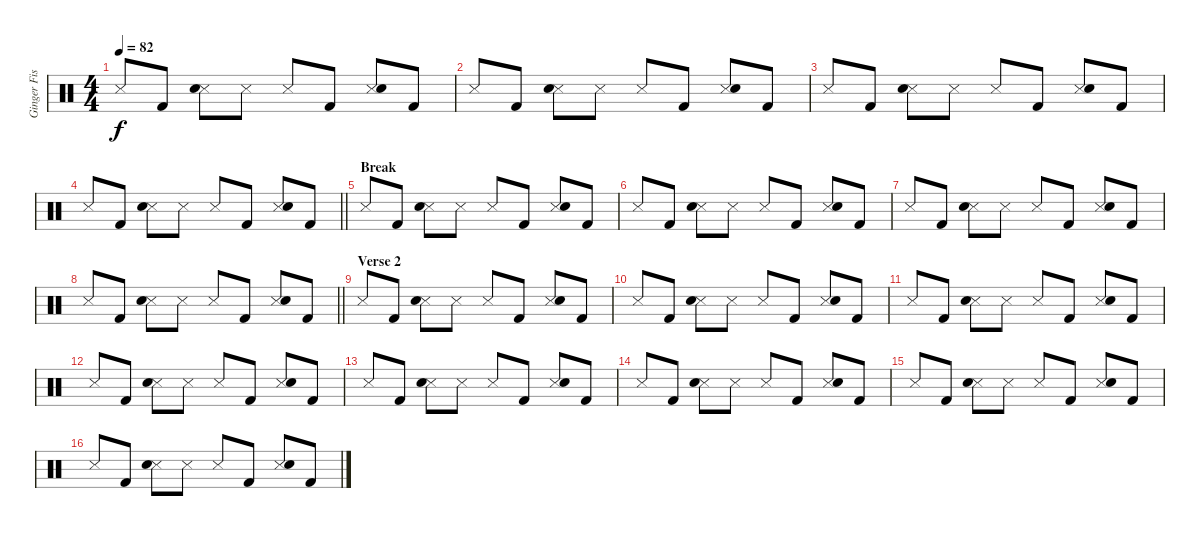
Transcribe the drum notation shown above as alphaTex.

\track ("Ginger Fish" "Ginger Fis") {instrument percussion}
\staff {score}
\articulation defaults
\ts (4 4)
\tempo 82
\clef neutral
\ks c "Metronome (hit)".8{dy f} "Kick (hit) 2".8
("Metronome (hit)" "Snare (hit) 2").8 "Metronome (hit)".8 "Metronome (hit)".8 "Kick (hit) 2".8 ("Metronome (hit)" "Snare (hit) 2").8 "Kick (hit) 2".8 |
"Metronome (hit)".8 "Kick (hit) 2".8 ("Metronome (hit)" "Snare (hit) 2").8 "Metronome (hit)".8 "Metronome (hit)".8 "Kick (hit) 2".8 ("Metronome (hit)" "Snare (hit) 2").8 "Kick (hit) 2".8 |
"Metronome (hit)".8 "Kick (hit) 2".8 ("Metronome (hit)" "Snare (hit) 2").8 "Metronome (hit)".8 "Metronome (hit)".8 "Kick (hit) 2".8 ("Metronome (hit)" "Snare (hit) 2").8 "Kick (hit) 2".8 |
\barLineRight lightlight "Metronome (hit)".8 "Kick (hit) 2".8
("Metronome (hit)" "Snare (hit) 2").8 "Metronome (hit)".8 "Metronome (hit)".8 "Kick (hit) 2".8 ("Metronome (hit)" "Snare (hit) 2").8 "Kick (hit) 2".8 |
\section ("" "Break")
"Metronome (hit)".8 "Kick (hit) 2".8 ("Metronome (hit)" "Snare (hit) 2").8 "Metronome (hit)".8 "Metronome (hit)".8 "Kick (hit) 2".8 ("Metronome (hit)" "Snare (hit) 2").8 "Kick (hit) 2".8 |
"Metronome (hit)".8 "Kick (hit) 2".8 ("Metronome (hit)" "Snare (hit) 2").8 "Metronome (hit)".8 "Metronome (hit)".8 "Kick (hit) 2".8 ("Metronome (hit)" "Snare (hit) 2").8 "Kick (hit) 2".8 |
"Metronome (hit)".8 "Kick (hit) 2".8 ("Metronome (hit)" "Snare (hit) 2").8 "Metronome (hit)".8 "Metronome (hit)".8 "Kick (hit) 2".8 ("Metronome (hit)" "Snare (hit) 2").8 "Kick (hit) 2".8 |
\barLineRight lightlight "Metronome (hit)".8 "Kick (hit) 2".8
("Metronome (hit)" "Snare (hit) 2").8 "Metronome (hit)".8 "Metronome (hit)".8 "Kick (hit) 2".8 ("Metronome (hit)" "Snare (hit) 2").8 "Kick (hit) 2".8 |
\section ("" "Verse 2")
"Metronome (hit)".8 "Kick (hit) 2".8 ("Metronome (hit)" "Snare (hit) 2").8 "Metronome (hit)".8 "Metronome (hit)".8 "Kick (hit) 2".8 ("Metronome (hit)" "Snare (hit) 2").8 "Kick (hit) 2".8 |
"Metronome (hit)".8 "Kick (hit) 2".8 ("Metronome (hit)" "Snare (hit) 2").8 "Metronome (hit)".8 "Metronome (hit)".8 "Kick (hit) 2".8 ("Metronome (hit)" "Snare (hit) 2").8 "Kick (hit) 2".8 |
"Metronome (hit)".8 "Kick (hit) 2".8 ("Metronome (hit)" "Snare (hit) 2").8 "Metronome (hit)".8 "Metronome (hit)".8 "Kick (hit) 2".8 ("Metronome (hit)" "Snare (hit) 2").8 "Kick (hit) 2".8 |
"Metronome (hit)".8 "Kick (hit) 2".8 ("Metronome (hit)" "Snare (hit) 2").8 "Metronome (hit)".8 "Metronome (hit)".8 "Kick (hit) 2".8 ("Metronome (hit)" "Snare (hit) 2").8 "Kick (hit) 2".8 |
"Metronome (hit)".8 "Kick (hit) 2".8 ("Metronome (hit)" "Snare (hit) 2").8 "Metronome (hit)".8 "Metronome (hit)".8 "Kick (hit) 2".8 ("Metronome (hit)" "Snare (hit) 2").8 "Kick (hit) 2".8 |
"Metronome (hit)".8 "Kick (hit) 2".8 ("Metronome (hit)" "Snare (hit) 2").8 "Metronome (hit)".8 "Metronome (hit)".8 "Kick (hit) 2".8 ("Metronome (hit)" "Snare (hit) 2").8 "Kick (hit) 2".8 |
"Metronome (hit)".8 "Kick (hit) 2".8 ("Metronome (hit)" "Snare (hit) 2").8 "Metronome (hit)".8 "Metronome (hit)".8 "Kick (hit) 2".8 ("Metronome (hit)" "Snare (hit) 2").8 "Kick (hit) 2".8 |
"Metronome (hit)".8 "Kick (hit) 2".8 ("Metronome (hit)" "Snare (hit) 2").8 "Metronome (hit)".8 "Metronome (hit)".8 "Kick (hit) 2".8 ("Metronome (hit)" "Snare (hit) 2").8 "Kick (hit) 2".8
